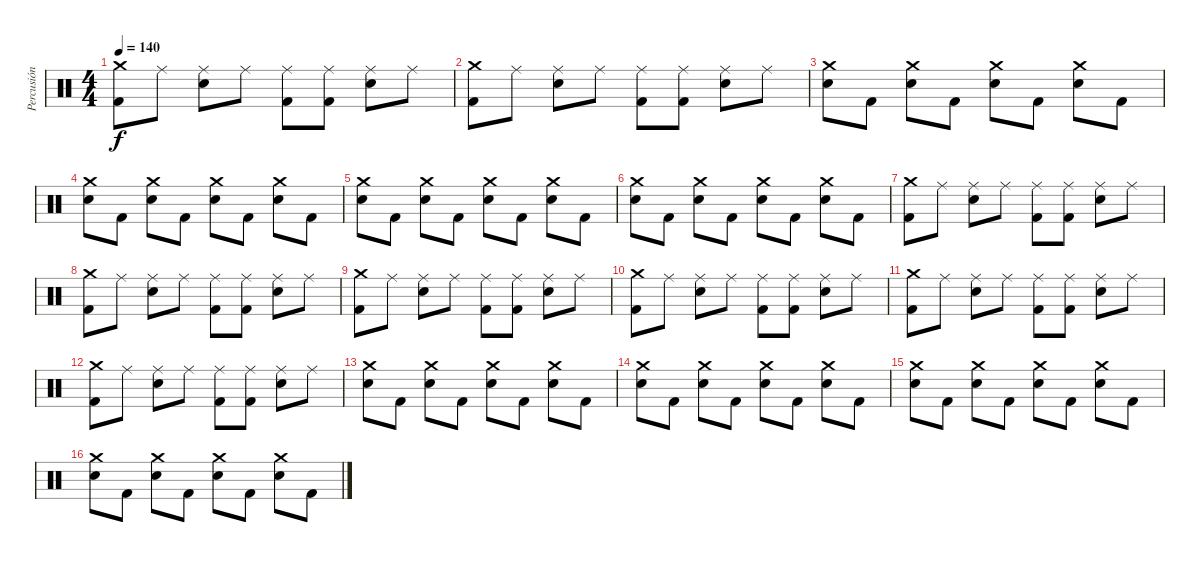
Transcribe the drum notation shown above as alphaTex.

\track ("Percusión" "Percusión") {instrument percussion}
\staff {score}
\articulation defaults
\ts (4 4)
\tempo 140
\clef neutral
\ks c
("Crash medium (hit)" "Kick (hit) 2").8{dy f} "Ride (middle)".8 ("Ride (middle)" "Snare (hit) 2").8 "Ride (middle)".8 ("Ride (middle)" "Kick (hit) 2").8 ("Ride (middle)" "Kick (hit) 2").8 ("Ride (middle)" "Snare (hit) 2").8 "Ride (middle)".8 |
("Crash medium (hit)" "Kick (hit) 2").8 "Ride (middle)".8 ("Ride (middle)" "Snare (hit) 2").8 "Ride (middle)".8 ("Ride (middle)" "Kick (hit) 2").8 ("Ride (middle)" "Kick (hit) 2").8 ("Ride (middle)" "Snare (hit) 2").8 "Ride (middle)".8 |
("Crash medium (hit)" "Snare (hit) 2").8 "Kick (hit) 2".8 ("Crash medium (hit)" "Snare (hit) 2").8 "Kick (hit) 2".8 ("Crash medium (hit)" "Snare (hit) 2").8 "Kick (hit) 2".8 ("Crash medium (hit)" "Snare (hit) 2").8 "Kick (hit) 2".8 |
("Crash medium (hit)" "Snare (hit) 2").8 "Kick (hit) 2".8 ("Crash medium (hit)" "Snare (hit) 2").8 "Kick (hit) 2".8 ("Crash medium (hit)" "Snare (hit) 2").8 "Kick (hit) 2".8 ("Crash medium (hit)" "Snare (hit) 2").8 "Kick (hit) 2".8 |
("Crash medium (hit)" "Snare (hit) 2").8 "Kick (hit) 2".8 ("Crash medium (hit)" "Snare (hit) 2").8 "Kick (hit) 2".8 ("Crash medium (hit)" "Snare (hit) 2").8 "Kick (hit) 2".8 ("Crash medium (hit)" "Snare (hit) 2").8 "Kick (hit) 2".8 |
("Crash medium (hit)" "Snare (hit) 2").8 "Kick (hit) 2".8 ("Crash medium (hit)" "Snare (hit) 2").8 "Kick (hit) 2".8 ("Crash medium (hit)" "Snare (hit) 2").8 "Kick (hit) 2".8 ("Crash medium (hit)" "Snare (hit) 2").8 "Kick (hit) 2".8 |
("Crash medium (hit)" "Kick (hit) 2").8 "Ride (middle)".8 ("Ride (middle)" "Snare (hit) 2").8 "Ride (middle)".8 ("Ride (middle)" "Kick (hit) 2").8 ("Ride (middle)" "Kick (hit) 2").8 ("Ride (middle)" "Snare (hit) 2").8 "Ride (middle)".8 |
("Crash medium (hit)" "Kick (hit) 2").8 "Ride (middle)".8 ("Ride (middle)" "Snare (hit) 2").8 "Ride (middle)".8 ("Ride (middle)" "Kick (hit) 2").8 ("Ride (middle)" "Kick (hit) 2").8 ("Ride (middle)" "Snare (hit) 2").8 "Ride (middle)".8 |
("Crash medium (hit)" "Kick (hit) 2").8 "Ride (middle)".8 ("Ride (middle)" "Snare (hit) 2").8 "Ride (middle)".8 ("Ride (middle)" "Kick (hit) 2").8 ("Ride (middle)" "Kick (hit) 2").8 ("Ride (middle)" "Snare (hit) 2").8 "Ride (middle)".8 |
("Crash medium (hit)" "Kick (hit) 2").8 "Ride (middle)".8 ("Ride (middle)" "Snare (hit) 2").8 "Ride (middle)".8 ("Ride (middle)" "Kick (hit) 2").8 ("Ride (middle)" "Kick (hit) 2").8 ("Ride (middle)" "Snare (hit) 2").8 "Ride (middle)".8 |
("Crash medium (hit)" "Kick (hit) 2").8 "Ride (middle)".8 ("Ride (middle)" "Snare (hit) 2").8 "Ride (middle)".8 ("Ride (middle)" "Kick (hit) 2").8 ("Ride (middle)" "Kick (hit) 2").8 ("Ride (middle)" "Snare (hit) 2").8 "Ride (middle)".8 |
("Crash medium (hit)" "Kick (hit) 2").8 "Ride (middle)".8 ("Ride (middle)" "Snare (hit) 2").8 "Ride (middle)".8 ("Ride (middle)" "Kick (hit) 2").8 ("Ride (middle)" "Kick (hit) 2").8 ("Ride (middle)" "Snare (hit) 2").8 "Ride (middle)".8 |
("Crash medium (hit)" "Snare (hit) 2").8 "Kick (hit) 2".8 ("Crash medium (hit)" "Snare (hit) 2").8 "Kick (hit) 2".8 ("Crash medium (hit)" "Snare (hit) 2").8 "Kick (hit) 2".8 ("Crash medium (hit)" "Snare (hit) 2").8 "Kick (hit) 2".8 |
("Crash medium (hit)" "Snare (hit) 2").8 "Kick (hit) 2".8 ("Crash medium (hit)" "Snare (hit) 2").8 "Kick (hit) 2".8 ("Crash medium (hit)" "Snare (hit) 2").8 "Kick (hit) 2".8 ("Crash medium (hit)" "Snare (hit) 2").8 "Kick (hit) 2".8 |
("Crash medium (hit)" "Snare (hit) 2").8 "Kick (hit) 2".8 ("Crash medium (hit)" "Snare (hit) 2").8 "Kick (hit) 2".8 ("Crash medium (hit)" "Snare (hit) 2").8 "Kick (hit) 2".8 ("Crash medium (hit)" "Snare (hit) 2").8 "Kick (hit) 2".8 |
("Crash medium (hit)" "Snare (hit) 2").8 "Kick (hit) 2".8 ("Crash medium (hit)" "Snare (hit) 2").8 "Kick (hit) 2".8 ("Crash medium (hit)" "Snare (hit) 2").8 "Kick (hit) 2".8 ("Crash medium (hit)" "Snare (hit) 2").8 "Kick (hit) 2".8
